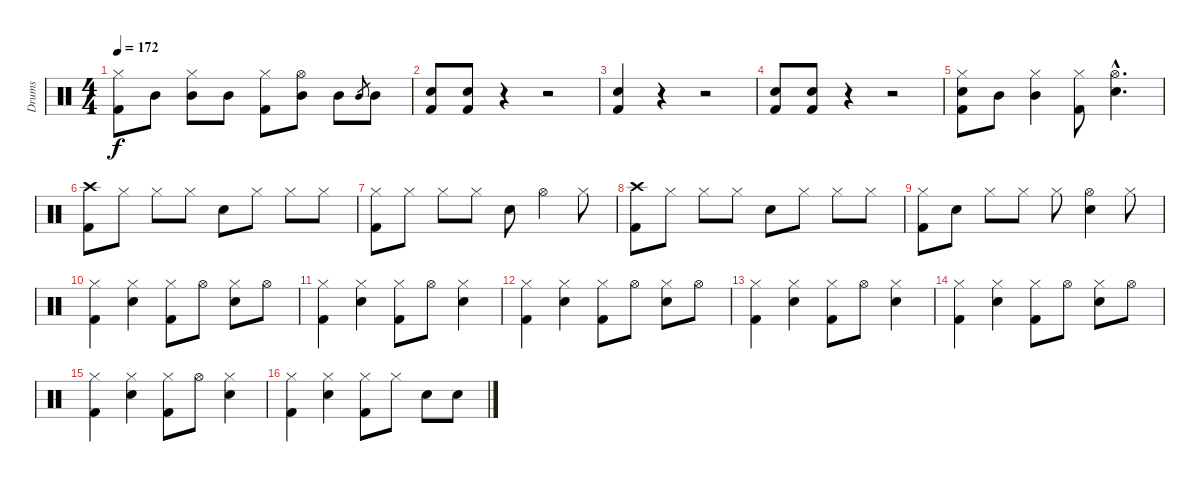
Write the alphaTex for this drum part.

\track ("Drums" "Drums") {instrument percussion}
\staff {score}
\articulation defaults
\ts (4 4)
\tempo 172
\clef neutral
\ks c
("Hi-Hat (closed)" "Kick (hit) 2").8{dy f} "Mid Tom (hit)".8 ("Hi-Hat (closed)" "Mid Tom (hit)").8 "Mid Tom (hit)".8 ("Hi-Hat (closed)" "Kick (hit) 2").8 ("Hi-Hat (open)" "Mid Tom (hit)").8 "Mid Tom (hit)".8 "Mid Tom (hit)".8{gr} "Mid Tom (hit)".8 |
("Electric Snare (hit)" "Kick (hit) 2").8 ("Electric Snare (hit)" "Kick (hit) 2").8 r.4 r.2 |
("Electric Snare (hit)" "Kick (hit) 2").4 r.4 r.2 |
("Electric Snare (hit)" "Kick (hit) 2").8 ("Electric Snare (hit)" "Kick (hit) 2").8 r.4 r.2 |
("Hi-Hat (closed)" "Electric Snare (hit)" "Kick (hit) 2").8 "Mid Tom (hit)".8 ("Hi-Hat (closed)" "Mid Tom (hit)").4 ("Hi-Hat (closed)" "Kick (hit) 2").8 ("Hi-Hat (open)"{hac} "Electric Snare (hit)"{hac}).4{d} |
("Crash high (hit)" "Kick (hit) 2").8 "Hi-Hat (closed)".8 "Hi-Hat (closed)".8 "Hi-Hat (closed)".8 "Electric Snare (hit)".8 "Hi-Hat (closed)".8 "Hi-Hat (closed)".8 "Hi-Hat (closed)".8 |
("Hi-Hat (closed)" "Kick (hit) 2").8 "Hi-Hat (closed)".8 "Hi-Hat (closed)".8 "Hi-Hat (closed)".8 "Electric Snare (hit)".8 "Hi-Hat (open)".4 "Hi-Hat (closed)".8 |
("Crash high (hit)" "Kick (hit) 2").8 "Hi-Hat (closed)".8 "Hi-Hat (closed)".8 "Hi-Hat (closed)".8 "Electric Snare (hit)".8 "Hi-Hat (closed)".8 "Hi-Hat (closed)".8 "Hi-Hat (closed)".8 |
("Hi-Hat (closed)" "Kick (hit) 2").8 "Electric Snare (hit)".8 "Hi-Hat (closed)".8 "Hi-Hat (closed)".8 "Hi-Hat (closed)".8 ("Hi-Hat (open)" "Electric Snare (hit)").4 "Hi-Hat (closed)".8 |
("Hi-Hat (closed)" "Kick (hit) 2").4 ("Hi-Hat (closed)" "Electric Snare (hit)").4 ("Hi-Hat (closed)" "Kick (hit) 2").8 "Hi-Hat (open)".8 ("Hi-Hat (closed)" "Electric Snare (hit)").8 "Hi-Hat (open)".8 |
("Hi-Hat (closed)" "Kick (hit) 2").4 ("Hi-Hat (closed)" "Electric Snare (hit)").4 ("Hi-Hat (closed)" "Kick (hit) 2").8 "Hi-Hat (open)".8 ("Hi-Hat (closed)" "Electric Snare (hit)").4 |
("Hi-Hat (closed)" "Kick (hit) 2").4 ("Hi-Hat (closed)" "Electric Snare (hit)").4 ("Hi-Hat (closed)" "Kick (hit) 2").8 "Hi-Hat (open)".8 ("Hi-Hat (closed)" "Electric Snare (hit)").8 "Hi-Hat (open)".8 |
("Hi-Hat (closed)" "Kick (hit) 2").4 ("Hi-Hat (closed)" "Electric Snare (hit)").4 ("Hi-Hat (closed)" "Kick (hit) 2").8 "Hi-Hat (open)".8 ("Hi-Hat (closed)" "Electric Snare (hit)").4 |
("Hi-Hat (closed)" "Kick (hit) 2").4 ("Hi-Hat (closed)" "Electric Snare (hit)").4 ("Hi-Hat (closed)" "Kick (hit) 2").8 "Hi-Hat (open)".8 ("Hi-Hat (closed)" "Electric Snare (hit)").8 "Hi-Hat (open)".8 |
("Hi-Hat (closed)" "Kick (hit) 2").4 ("Hi-Hat (closed)" "Electric Snare (hit)").4 ("Hi-Hat (closed)" "Kick (hit) 2").8 "Hi-Hat (open)".8 ("Hi-Hat (closed)" "Electric Snare (hit)").4 |
("Hi-Hat (closed)" "Kick (hit) 2").4 ("Hi-Hat (closed)" "Electric Snare (hit)").4 ("Hi-Hat (closed)" "Kick (hit) 2").8 "Hi-Hat (closed)".8 "Electric Snare (hit)".8 "Electric Snare (hit)".8
